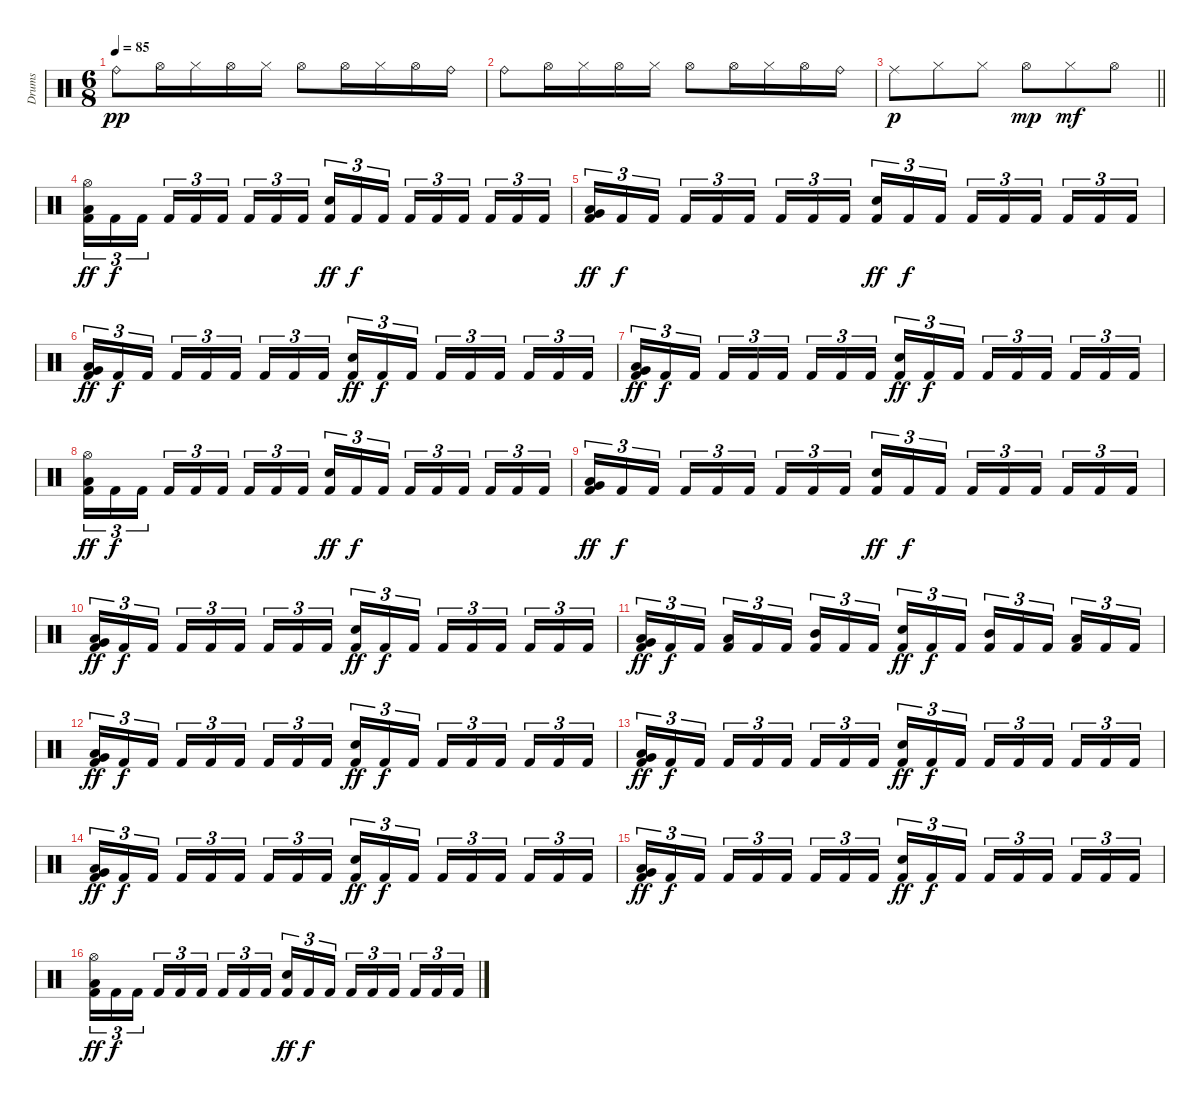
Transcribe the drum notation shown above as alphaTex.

\track ("Drums" "Drums") {instrument percussion}
\staff {score}
\articulation defaults
\ts (6 8)
\tempo 85
\clef neutral
\ks c "Ride (bell)".8{dy pp} "Hi-Hat (open)".16 "Hi-Hat (closed)".16 "Hi-Hat (open)".16 "Hi-Hat (closed)".16 "Hi-Hat (open)".8 "Hi-Hat (open)".16 "Hi-Hat (closed)".16 "Hi-Hat (open)".16 "Ride (bell)".16
|
"Ride (bell)".8 "Hi-Hat (open)".16 "Hi-Hat (closed)".16 "Hi-Hat (open)".16 "Hi-Hat (closed)".16 "Hi-Hat (open)".8 "Hi-Hat (open)".16 "Hi-Hat (closed)".16 "Hi-Hat (open)".16 "Ride (bell)".16 |
\barLineRight lightlight "Ride (middle)".8{dy p} "Hi-Hat (closed)".8 "Hi-Hat (closed)".8 "Hi-Hat (open)".8{dy mp} "Hi-Hat (closed)".8{dy mf} "Hi-Hat (open)".8
|
\section ("" "")
("Hi-Hat (open)" "Low Tom (hit)" "Kick (hit) 2").16{tu (3 2) dy ff} "Kick (hit) 2".16{tu (3 2) dy f} "Kick (hit) 2".16{tu (3 2) beam splitsecondary} "Kick (hit) 2".16{tu (3 2)} "Kick (hit) 2".16{tu (3 2)} "Kick (hit) 2".16{tu (3 2) beam splitsecondary} "Kick (hit) 2".16{tu (3 2)} "Kick (hit) 2".16{tu (3 2)} "Kick (hit) 2".16{tu (3 2)} ("Snare (hit) 2" "Kick (hit) 2").16{tu (3 2) dy ff} "Kick (hit) 2".16{tu (3 2) dy f} "Kick (hit) 2".16{tu (3 2) beam splitsecondary} "Kick (hit) 2".16{tu (3 2)} "Kick (hit) 2".16{tu (3 2)} "Kick (hit) 2".16{tu (3 2) beam splitsecondary} "Kick (hit) 2".16{tu (3 2)} "Kick (hit) 2".16{tu (3 2)} "Kick (hit) 2".16{tu (3 2)} |
("Very Low Tom (hit)" "Low Tom (hit)" "Kick (hit) 2").16{tu (3 2) dy ff} "Kick (hit) 2".16{tu (3 2) dy f} "Kick (hit) 2".16{tu (3 2) beam splitsecondary} "Kick (hit) 2".16{tu (3 2)} "Kick (hit) 2".16{tu (3 2)} "Kick (hit) 2".16{tu (3 2) beam splitsecondary} "Kick (hit) 2".16{tu (3 2)} "Kick (hit) 2".16{tu (3 2)} "Kick (hit) 2".16{tu (3 2)} ("Snare (hit) 2" "Kick (hit) 2").16{tu (3 2) dy ff} "Kick (hit) 2".16{tu (3 2) dy f} "Kick (hit) 2".16{tu (3 2) beam splitsecondary} "Kick (hit) 2".16{tu (3 2)} "Kick (hit) 2".16{tu (3 2)} "Kick (hit) 2".16{tu (3 2) beam splitsecondary} "Kick (hit) 2".16{tu (3 2)} "Kick (hit) 2".16{tu (3 2)} "Kick (hit) 2".16{tu (3 2)} |
("Very Low Tom (hit)" "Low Tom (hit)" "Kick (hit) 2").16{tu (3 2) dy ff} "Kick (hit) 2".16{tu (3 2) dy f} "Kick (hit) 2".16{tu (3 2) beam splitsecondary} "Kick (hit) 2".16{tu (3 2)} "Kick (hit) 2".16{tu (3 2)} "Kick (hit) 2".16{tu (3 2) beam splitsecondary} "Kick (hit) 2".16{tu (3 2)} "Kick (hit) 2".16{tu (3 2)} "Kick (hit) 2".16{tu (3 2)} ("Snare (hit) 2" "Kick (hit) 2").16{tu (3 2) dy ff} "Kick (hit) 2".16{tu (3 2) dy f} "Kick (hit) 2".16{tu (3 2) beam splitsecondary} "Kick (hit) 2".16{tu (3 2)} "Kick (hit) 2".16{tu (3 2)} "Kick (hit) 2".16{tu (3 2) beam splitsecondary} "Kick (hit) 2".16{tu (3 2)} "Kick (hit) 2".16{tu (3 2)} "Kick (hit) 2".16{tu (3 2)} |
("Very Low Tom (hit)" "Low Tom (hit)" "Kick (hit) 2").16{tu (3 2) dy ff} "Kick (hit) 2".16{tu (3 2) dy f} "Kick (hit) 2".16{tu (3 2) beam splitsecondary} "Kick (hit) 2".16{tu (3 2)} "Kick (hit) 2".16{tu (3 2)} "Kick (hit) 2".16{tu (3 2) beam splitsecondary} "Kick (hit) 2".16{tu (3 2)} "Kick (hit) 2".16{tu (3 2)} "Kick (hit) 2".16{tu (3 2)} ("Snare (hit) 2" "Kick (hit) 2").16{tu (3 2) dy ff} "Kick (hit) 2".16{tu (3 2) dy f} "Kick (hit) 2".16{tu (3 2) beam splitsecondary} "Kick (hit) 2".16{tu (3 2)} "Kick (hit) 2".16{tu (3 2)} "Kick (hit) 2".16{tu (3 2) beam splitsecondary} "Kick (hit) 2".16{tu (3 2)} "Kick (hit) 2".16{tu (3 2)} "Kick (hit) 2".16{tu (3 2)} |
("Hi-Hat (open)" "Low Tom (hit)" "Kick (hit) 2").16{tu (3 2) dy ff} "Kick (hit) 2".16{tu (3 2) dy f} "Kick (hit) 2".16{tu (3 2) beam splitsecondary} "Kick (hit) 2".16{tu (3 2)} "Kick (hit) 2".16{tu (3 2)} "Kick (hit) 2".16{tu (3 2) beam splitsecondary} "Kick (hit) 2".16{tu (3 2)} "Kick (hit) 2".16{tu (3 2)} "Kick (hit) 2".16{tu (3 2)} ("Snare (hit) 2" "Kick (hit) 2").16{tu (3 2) dy ff} "Kick (hit) 2".16{tu (3 2) dy f} "Kick (hit) 2".16{tu (3 2) beam splitsecondary} "Kick (hit) 2".16{tu (3 2)} "Kick (hit) 2".16{tu (3 2)} "Kick (hit) 2".16{tu (3 2) beam splitsecondary} "Kick (hit) 2".16{tu (3 2)} "Kick (hit) 2".16{tu (3 2)} "Kick (hit) 2".16{tu (3 2)} |
("Very Low Tom (hit)" "Low Tom (hit)" "Kick (hit) 2").16{tu (3 2) dy ff} "Kick (hit) 2".16{tu (3 2) dy f} "Kick (hit) 2".16{tu (3 2) beam splitsecondary} "Kick (hit) 2".16{tu (3 2)} "Kick (hit) 2".16{tu (3 2)} "Kick (hit) 2".16{tu (3 2) beam splitsecondary} "Kick (hit) 2".16{tu (3 2)} "Kick (hit) 2".16{tu (3 2)} "Kick (hit) 2".16{tu (3 2)} ("Snare (hit) 2" "Kick (hit) 2").16{tu (3 2) dy ff} "Kick (hit) 2".16{tu (3 2) dy f} "Kick (hit) 2".16{tu (3 2) beam splitsecondary} "Kick (hit) 2".16{tu (3 2)} "Kick (hit) 2".16{tu (3 2)} "Kick (hit) 2".16{tu (3 2) beam splitsecondary} "Kick (hit) 2".16{tu (3 2)} "Kick (hit) 2".16{tu (3 2)} "Kick (hit) 2".16{tu (3 2)} |
("Very Low Tom (hit)" "Low Tom (hit)" "Kick (hit) 2").16{tu (3 2) dy ff} "Kick (hit) 2".16{tu (3 2) dy f} "Kick (hit) 2".16{tu (3 2) beam splitsecondary} "Kick (hit) 2".16{tu (3 2)} "Kick (hit) 2".16{tu (3 2)} "Kick (hit) 2".16{tu (3 2) beam splitsecondary} "Kick (hit) 2".16{tu (3 2)} "Kick (hit) 2".16{tu (3 2)} "Kick (hit) 2".16{tu (3 2)} ("Snare (hit) 2" "Kick (hit) 2").16{tu (3 2) dy ff} "Kick (hit) 2".16{tu (3 2) dy f} "Kick (hit) 2".16{tu (3 2) beam splitsecondary} "Kick (hit) 2".16{tu (3 2)} "Kick (hit) 2".16{tu (3 2)} "Kick (hit) 2".16{tu (3 2) beam splitsecondary} "Kick (hit) 2".16{tu (3 2)} "Kick (hit) 2".16{tu (3 2)} "Kick (hit) 2".16{tu (3 2)} |
("Very Low Tom (hit)" "Low Tom (hit)" "Kick (hit) 2").16{tu (3 2) dy ff} "Kick (hit) 2".16{tu (3 2) dy f} "Kick (hit) 2".16{tu (3 2) beam splitsecondary} ("Low Tom (hit)" "Kick (hit) 2").16{tu (3 2)} "Kick (hit) 2".16{tu (3 2)} "Kick (hit) 2".16{tu (3 2) beam splitsecondary} ("Mid Tom (hit)" "Kick (hit) 2").16{tu (3 2)} "Kick (hit) 2".16{tu (3 2)} "Kick (hit) 2".16{tu (3 2)} ("Snare (hit) 2" "Kick (hit) 2").16{tu (3 2) dy ff} "Kick (hit) 2".16{tu (3 2) dy f} "Kick (hit) 2".16{tu (3 2) beam splitsecondary} ("Mid Tom (hit)" "Kick (hit) 2").16{tu (3 2)} "Kick (hit) 2".16{tu (3 2)} "Kick (hit) 2".16{tu (3 2) beam splitsecondary} ("Low Tom (hit)" "Kick (hit) 2").16{tu (3 2)} "Kick (hit) 2".16{tu (3 2)} "Kick (hit) 2".16{tu (3 2)} |
("Very Low Tom (hit)" "Low Tom (hit)" "Kick (hit) 2").16{tu (3 2) dy ff} "Kick (hit) 2".16{tu (3 2) dy f} "Kick (hit) 2".16{tu (3 2) beam splitsecondary} "Kick (hit) 2".16{tu (3 2)} "Kick (hit) 2".16{tu (3 2)} "Kick (hit) 2".16{tu (3 2) beam splitsecondary} "Kick (hit) 2".16{tu (3 2)} "Kick (hit) 2".16{tu (3 2)} "Kick (hit) 2".16{tu (3 2)} ("Snare (hit) 2" "Kick (hit) 2").16{tu (3 2) dy ff} "Kick (hit) 2".16{tu (3 2) dy f} "Kick (hit) 2".16{tu (3 2) beam splitsecondary} "Kick (hit) 2".16{tu (3 2)} "Kick (hit) 2".16{tu (3 2)} "Kick (hit) 2".16{tu (3 2) beam splitsecondary} "Kick (hit) 2".16{tu (3 2)} "Kick (hit) 2".16{tu (3 2)} "Kick (hit) 2".16{tu (3 2)} |
("Very Low Tom (hit)" "Low Tom (hit)" "Kick (hit) 2").16{tu (3 2) dy ff} "Kick (hit) 2".16{tu (3 2) dy f} "Kick (hit) 2".16{tu (3 2) beam splitsecondary} "Kick (hit) 2".16{tu (3 2)} "Kick (hit) 2".16{tu (3 2)} "Kick (hit) 2".16{tu (3 2) beam splitsecondary} "Kick (hit) 2".16{tu (3 2)} "Kick (hit) 2".16{tu (3 2)} "Kick (hit) 2".16{tu (3 2)} ("Snare (hit) 2" "Kick (hit) 2").16{tu (3 2) dy ff} "Kick (hit) 2".16{tu (3 2) dy f} "Kick (hit) 2".16{tu (3 2) beam splitsecondary} "Kick (hit) 2".16{tu (3 2)} "Kick (hit) 2".16{tu (3 2)} "Kick (hit) 2".16{tu (3 2) beam splitsecondary} "Kick (hit) 2".16{tu (3 2)} "Kick (hit) 2".16{tu (3 2)} "Kick (hit) 2".16{tu (3 2)} |
("Very Low Tom (hit)" "Low Tom (hit)" "Kick (hit) 2").16{tu (3 2) dy ff} "Kick (hit) 2".16{tu (3 2) dy f} "Kick (hit) 2".16{tu (3 2) beam splitsecondary} "Kick (hit) 2".16{tu (3 2)} "Kick (hit) 2".16{tu (3 2)} "Kick (hit) 2".16{tu (3 2) beam splitsecondary} "Kick (hit) 2".16{tu (3 2)} "Kick (hit) 2".16{tu (3 2)} "Kick (hit) 2".16{tu (3 2)} ("Snare (hit) 2" "Kick (hit) 2").16{tu (3 2) dy ff} "Kick (hit) 2".16{tu (3 2) dy f} "Kick (hit) 2".16{tu (3 2) beam splitsecondary} "Kick (hit) 2".16{tu (3 2)} "Kick (hit) 2".16{tu (3 2)} "Kick (hit) 2".16{tu (3 2) beam splitsecondary} "Kick (hit) 2".16{tu (3 2)} "Kick (hit) 2".16{tu (3 2)} "Kick (hit) 2".16{tu (3 2)} |
("Very Low Tom (hit)" "Low Tom (hit)" "Kick (hit) 2").16{tu (3 2) dy ff} "Kick (hit) 2".16{tu (3 2) dy f} "Kick (hit) 2".16{tu (3 2) beam splitsecondary} "Kick (hit) 2".16{tu (3 2)} "Kick (hit) 2".16{tu (3 2)} "Kick (hit) 2".16{tu (3 2) beam splitsecondary} "Kick (hit) 2".16{tu (3 2)} "Kick (hit) 2".16{tu (3 2)} "Kick (hit) 2".16{tu (3 2)} ("Snare (hit) 2" "Kick (hit) 2").16{tu (3 2) dy ff} "Kick (hit) 2".16{tu (3 2) dy f} "Kick (hit) 2".16{tu (3 2) beam splitsecondary} "Kick (hit) 2".16{tu (3 2)} "Kick (hit) 2".16{tu (3 2)} "Kick (hit) 2".16{tu (3 2) beam splitsecondary} "Kick (hit) 2".16{tu (3 2)} "Kick (hit) 2".16{tu (3 2)} "Kick (hit) 2".16{tu (3 2)} |
("Hi-Hat (open)" "Low Tom (hit)" "Kick (hit) 2").16{tu (3 2) dy ff} "Kick (hit) 2".16{tu (3 2) dy f} "Kick (hit) 2".16{tu (3 2) beam splitsecondary} "Kick (hit) 2".16{tu (3 2)} "Kick (hit) 2".16{tu (3 2)} "Kick (hit) 2".16{tu (3 2) beam splitsecondary} "Kick (hit) 2".16{tu (3 2)} "Kick (hit) 2".16{tu (3 2)} "Kick (hit) 2".16{tu (3 2)} ("Snare (hit) 2" "Kick (hit) 2").16{tu (3 2) dy ff} "Kick (hit) 2".16{tu (3 2) dy f} "Kick (hit) 2".16{tu (3 2) beam splitsecondary} "Kick (hit) 2".16{tu (3 2)} "Kick (hit) 2".16{tu (3 2)} "Kick (hit) 2".16{tu (3 2) beam splitsecondary} "Kick (hit) 2".16{tu (3 2)} "Kick (hit) 2".16{tu (3 2)} "Kick (hit) 2".16{tu (3 2)}
